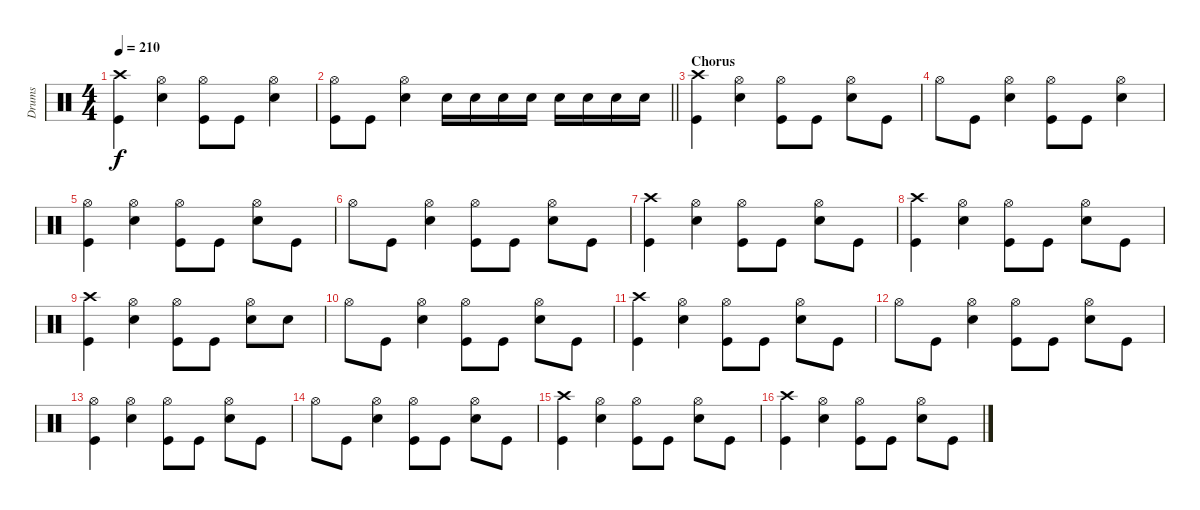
\track ("Drums" "Drums") {instrument percussion}
\staff {score}
\articulation defaults
\ts (4 4)
\tempo 210
\clef neutral
\ks c
("Crash high (hit)" "Kick (hit)").4{dy f} ("Hi-Hat (open)" "Snare (hit) 2").4 ("Hi-Hat (open)" "Kick (hit)").8 "Kick (hit)".8 ("Hi-Hat (open)" "Snare (hit) 2").4 |
\barLineRight lightlight
("Hi-Hat (open)" "Kick (hit)").8 "Kick (hit)".8 ("Hi-Hat (open)" "Snare (hit) 2").4 "Snare (hit) 2".16 "Snare (hit) 2".16 "Snare (hit) 2".16 "Snare (hit) 2".16 "Snare (hit) 2".16 "Snare (hit) 2".16 "Snare (hit) 2".16 "Snare (hit) 2".16 |
\section ("" "Chorus")
("Crash high (hit)" "Kick (hit)").4 ("Hi-Hat (open)" "Snare (hit) 2").4 ("Hi-Hat (open)" "Kick (hit)").8 "Kick (hit)".8 ("Hi-Hat (open)" "Snare (hit) 2").8 "Kick (hit)".8 |
"Hi-Hat (open)".8 "Kick (hit)".8 ("Hi-Hat (open)" "Snare (hit) 2").4 ("Hi-Hat (open)" "Kick (hit)").8 "Kick (hit)".8 ("Hi-Hat (open)" "Snare (hit) 2").4 |
("Hi-Hat (open)" "Kick (hit)").4 ("Hi-Hat (open)" "Snare (hit) 2").4 ("Hi-Hat (open)" "Kick (hit)").8 "Kick (hit)".8 ("Hi-Hat (open)" "Snare (hit) 2").8 "Kick (hit)".8 |
"Hi-Hat (open)".8 "Kick (hit)".8 ("Hi-Hat (open)" "Snare (hit) 2").4 ("Hi-Hat (open)" "Kick (hit)").8 "Kick (hit)".8 ("Hi-Hat (open)" "Snare (hit) 2").8 "Kick (hit)".8 |
("Crash high (hit)" "Kick (hit)").4 ("Hi-Hat (open)" "Snare (hit) 2").4 ("Hi-Hat (open)" "Kick (hit)").8 "Kick (hit)".8 ("Hi-Hat (open)" "Snare (hit) 2").8 "Kick (hit)".8 |
("Crash high (hit)" "Kick (hit)").4 ("Hi-Hat (open)" "Snare (hit) 2").4 ("Hi-Hat (open)" "Kick (hit)").8 "Kick (hit)".8 ("Hi-Hat (open)" "Snare (hit) 2").8 "Kick (hit)".8 |
("Crash high (hit)" "Kick (hit)").4 ("Hi-Hat (open)" "Snare (hit) 2").4 ("Hi-Hat (open)" "Kick (hit)").8 "Kick (hit)".8 ("Hi-Hat (open)" "Snare (hit) 2").8 "Snare (hit) 2".8 |
"Hi-Hat (open)".8 "Kick (hit)".8 ("Hi-Hat (open)" "Snare (hit) 2").4 ("Hi-Hat (open)" "Kick (hit)").8 "Kick (hit)".8 ("Hi-Hat (open)" "Snare (hit) 2").8 "Kick (hit)".8 |
("Crash high (hit)" "Kick (hit)").4 ("Hi-Hat (open)" "Snare (hit) 2").4 ("Hi-Hat (open)" "Kick (hit)").8 "Kick (hit)".8 ("Hi-Hat (open)" "Snare (hit) 2").8 "Kick (hit)".8 |
"Hi-Hat (open)".8 "Kick (hit)".8 ("Hi-Hat (open)" "Snare (hit) 2").4 ("Hi-Hat (open)" "Kick (hit)").8 "Kick (hit)".8 ("Hi-Hat (open)" "Snare (hit) 2").8 "Kick (hit)".8 |
("Hi-Hat (open)" "Kick (hit)").4 ("Hi-Hat (open)" "Snare (hit) 2").4 ("Hi-Hat (open)" "Kick (hit)").8 "Kick (hit)".8 ("Hi-Hat (open)" "Snare (hit) 2").8 "Kick (hit)".8 |
"Hi-Hat (open)".8 "Kick (hit)".8 ("Hi-Hat (open)" "Snare (hit) 2").4 ("Hi-Hat (open)" "Kick (hit)").8 "Kick (hit)".8 ("Hi-Hat (open)" "Snare (hit) 2").8 "Kick (hit)".8 |
("Crash high (hit)" "Kick (hit)").4 ("Hi-Hat (open)" "Snare (hit) 2").4 ("Hi-Hat (open)" "Kick (hit)").8 "Kick (hit)".8 ("Hi-Hat (open)" "Snare (hit) 2").8 "Kick (hit)".8 |
("Crash high (hit)" "Kick (hit)").4 ("Hi-Hat (open)" "Snare (hit) 2").4 ("Hi-Hat (open)" "Kick (hit)").8 "Kick (hit)".8 ("Hi-Hat (open)" "Snare (hit) 2").8 "Kick (hit)".8
